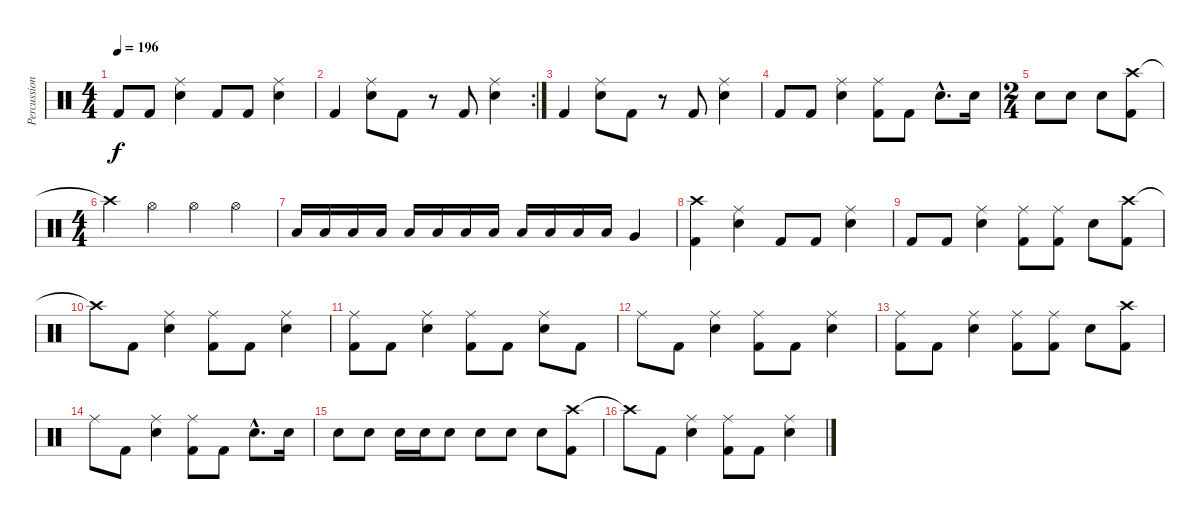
\track ("Percussion" "Percussion") {instrument percussion}
\staff {score}
\articulation defaults
\ts (4 4)
\tempo 196
\clef neutral
\ks c "Kick (hit) 2".8{dy f} "Kick (hit) 2".8
("Ride (middle)" "Snare (hit) 2").4 "Kick (hit) 2".8 "Kick (hit) 2".8 ("Ride (middle)" "Snare (hit) 2").4 |
\rc 2 "Kick (hit) 2".4
("Ride (middle)" "Snare (hit) 2").8 "Kick (hit) 2".8 r.8 "Kick (hit) 2".8 ("Ride (middle)" "Snare (hit) 2").4 |
"Kick (hit) 2".4 ("Ride (middle)" "Snare (hit) 2").8 "Kick (hit) 2".8 r.8 "Kick (hit) 2".8 ("Ride (middle)" "Snare (hit) 2").4 |
"Kick (hit) 2".8 "Kick (hit) 2".8 ("Ride (middle)" "Snare (hit) 2").4 ("Ride (middle)" "Kick (hit) 2").8 "Kick (hit) 2".8 "Snare (hit) 2"{hac}.8{d} "Snare (hit) 2".16 |
\ts (2 4)
"Snare (hit) 2".8 "Snare (hit) 2".8 "Snare (hit) 2".8 ("Crash high (hit)" "Kick (hit) 2").8 |
\ts (4 4)
"Crash high (hit)"{t}.4 "Hi-Hat (open)".4 "Hi-Hat (open)".4 "Hi-Hat (open)".4 |
"Low Tom (hit)".16 "Low Tom (hit)".16 "Low Tom (hit)".16 "Low Tom (hit)".16 "Low Tom (hit)".16 "Low Tom (hit)".16 "Low Tom (hit)".16 "Low Tom (hit)".16 "Low Tom (hit)".16 "Low Tom (hit)".16 "Low Tom (hit)".16 "Low Tom (hit)".16 "Very Low Tom (hit)".4 |
("Crash high (hit)" "Kick (hit) 2").4 ("Ride (middle)" "Snare (hit) 2").4 "Kick (hit) 2".8 "Kick (hit) 2".8 ("Ride (middle)" "Snare (hit) 2").4 |
"Kick (hit) 2".8 "Kick (hit) 2".8 ("Ride (middle)" "Snare (hit) 2").4 ("Ride (middle)" "Kick (hit) 2").8 ("Ride (middle)" "Kick (hit) 2").8 "Snare (hit) 2".8 ("Crash high (hit)" "Kick (hit) 2").8 |
"Crash high (hit)"{t}.8 "Kick (hit) 2".8 ("Ride (middle)" "Snare (hit) 2").4 ("Ride (middle)" "Kick (hit) 2").8 "Kick (hit) 2".8 ("Ride (middle)" "Snare (hit) 2").4 |
("Ride (middle)" "Kick (hit) 2").8 "Kick (hit) 2".8 ("Ride (middle)" "Snare (hit) 2").4 ("Ride (middle)" "Kick (hit) 2").8 "Kick (hit) 2".8 ("Ride (middle)" "Snare (hit) 2").8 "Kick (hit) 2".8 |
"Ride (middle)".8 "Kick (hit) 2".8 ("Ride (middle)" "Snare (hit) 2").4 ("Ride (middle)" "Kick (hit) 2").8 "Kick (hit) 2".8 ("Ride (middle)" "Snare (hit) 2").4 |
("Ride (middle)" "Kick (hit) 2").8 "Kick (hit) 2".8 ("Ride (middle)" "Snare (hit) 2").4 ("Ride (middle)" "Kick (hit) 2").8 ("Ride (middle)" "Kick (hit) 2").8 "Snare (hit) 2".8 ("Crash high (hit)" "Kick (hit) 2").8 |
"Ride (middle)".8 "Kick (hit) 2".8 ("Ride (middle)" "Snare (hit) 2").4 ("Ride (middle)" "Kick (hit) 2").8 "Kick (hit) 2".8 "Snare (hit) 2"{hac}.8{d} "Snare (hit) 2".16 |
"Snare (hit) 2".8 "Snare (hit) 2".8 "Snare (hit) 2".16 "Snare (hit) 2".16 "Snare (hit) 2".8 "Snare (hit) 2".8 "Snare (hit) 2".8 "Snare (hit) 2".8 ("Crash high (hit)" "Kick (hit) 2").8 |
"Crash high (hit)"{t}.8 "Kick (hit) 2".8 ("Ride (middle)" "Snare (hit) 2").4 ("Ride (middle)" "Kick (hit) 2").8 "Kick (hit) 2".8 ("Ride (middle)" "Snare (hit) 2").4
